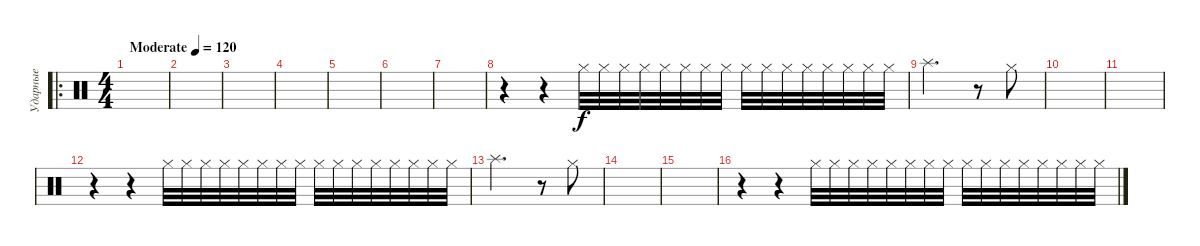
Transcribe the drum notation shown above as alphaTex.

\track ("Ударные" "Ударные") {instrument percussion}
\staff {score}
\articulation defaults
\ro
\ts (4 4)
\tempo (120 "Moderate")
\tempo 85
\tempo (120 "Moderate")
\clef neutral
\ks c
|
|
|
|
|
|
|
r.4 r.4 "Hi-Hat (closed)".32{volume 13} "Hi-Hat (closed)".32 "Hi-Hat (closed)".32 "Hi-Hat (closed)".32 "Hi-Hat (closed)".32 "Hi-Hat (closed)".32 "Hi-Hat (closed)".32 "Hi-Hat (closed)".32 "Hi-Hat (closed)".32 "Hi-Hat (closed)".32 "Hi-Hat (closed)".32 "Hi-Hat (closed)".32 "Hi-Hat (closed)".32 "Hi-Hat (closed)".32 "Hi-Hat (closed)".32 "Hi-Hat (closed)".32 |
"Splash (hit)".2{d} r.8 "Hi-Hat (closed)".8 |
|
|
r.4 r.4 "Hi-Hat (closed)".32{volume 13} "Hi-Hat (closed)".32 "Hi-Hat (closed)".32 "Hi-Hat (closed)".32 "Hi-Hat (closed)".32 "Hi-Hat (closed)".32 "Hi-Hat (closed)".32 "Hi-Hat (closed)".32 "Hi-Hat (closed)".32 "Hi-Hat (closed)".32 "Hi-Hat (closed)".32 "Hi-Hat (closed)".32 "Hi-Hat (closed)".32 "Hi-Hat (closed)".32 "Hi-Hat (closed)".32 "Hi-Hat (closed)".32 |
"Splash (hit)".2{d} r.8 "Hi-Hat (closed)".8 |
|
|
r.4 r.4 "Hi-Hat (closed)".32{volume 13} "Hi-Hat (closed)".32 "Hi-Hat (closed)".32 "Hi-Hat (closed)".32 "Hi-Hat (closed)".32 "Hi-Hat (closed)".32 "Hi-Hat (closed)".32 "Hi-Hat (closed)".32 "Hi-Hat (closed)".32 "Hi-Hat (closed)".32 "Hi-Hat (closed)".32 "Hi-Hat (closed)".32 "Hi-Hat (closed)".32 "Hi-Hat (closed)".32 "Hi-Hat (closed)".32 "Hi-Hat (closed)".32
